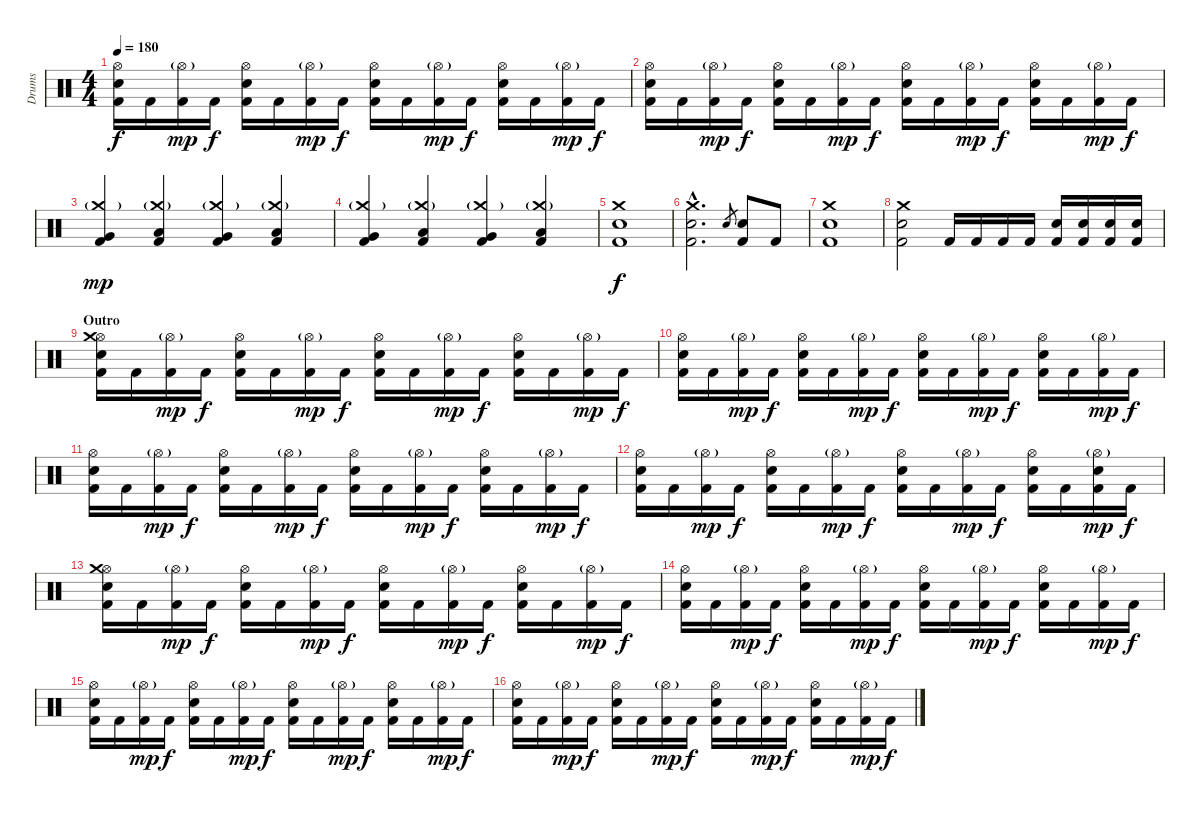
\track ("Drums" "Drums") {instrument percussion}
\staff {score}
\articulation defaults
\ts (4 4)
\tempo 180
\clef neutral
\ks c
("Hi-Hat (open)" "Electric Snare (hit)" "Kick (hit) 2").16{dy f} "Kick (hit) 2".16 ("Hi-Hat (open)"{g} "Kick (hit) 2").16{dy mp} "Kick (hit) 2".16{dy f} ("Hi-Hat (open)" "Electric Snare (hit)" "Kick (hit) 2").16 "Kick (hit) 2".16 ("Hi-Hat (open)"{g} "Kick (hit) 2").16{dy mp} "Kick (hit) 2".16{dy f} ("Hi-Hat (open)" "Electric Snare (hit)" "Kick (hit) 2").16 "Kick (hit) 2".16 ("Hi-Hat (open)"{g} "Kick (hit) 2").16{dy mp} "Kick (hit) 2".16{dy f} ("Hi-Hat (open)" "Electric Snare (hit)" "Kick (hit) 2").16 "Kick (hit) 2".16 ("Hi-Hat (open)"{g} "Kick (hit) 2").16{dy mp} "Kick (hit) 2".16{dy f} |
("Hi-Hat (open)" "Electric Snare (hit)" "Kick (hit) 2").16 "Kick (hit) 2".16 ("Hi-Hat (open)"{g} "Kick (hit) 2").16{dy mp} "Kick (hit) 2".16{dy f} ("Hi-Hat (open)" "Electric Snare (hit)" "Kick (hit) 2").16 "Kick (hit) 2".16 ("Hi-Hat (open)"{g} "Kick (hit) 2").16{dy mp} "Kick (hit) 2".16{dy f} ("Hi-Hat (open)" "Electric Snare (hit)" "Kick (hit) 2").16 "Kick (hit) 2".16 ("Hi-Hat (open)"{g} "Kick (hit) 2").16{dy mp} "Kick (hit) 2".16{dy f} ("Hi-Hat (open)" "Electric Snare (hit)" "Kick (hit) 2").16 "Kick (hit) 2".16 ("Hi-Hat (open)"{g} "Kick (hit) 2").16{dy mp} "Kick (hit) 2".16{dy f} |
("Crash medium (hit)"{g} "Very Low Tom (hit)" "Kick (hit) 2").4{dy mp} ("Crash medium (hit)"{g} "Low Floor Tom (hit)" "Kick (hit) 2").4 ("Crash medium (hit)"{g} "Very Low Tom (hit)" "Kick (hit) 2").4 ("Crash medium (hit)"{g} "Low Floor Tom (hit)" "Kick (hit) 2").4 |
("Crash medium (hit)"{g} "Very Low Tom (hit)" "Kick (hit) 2").4 ("Crash medium (hit)"{g} "Low Floor Tom (hit)" "Kick (hit) 2").4 ("Crash medium (hit)"{g} "Very Low Tom (hit)" "Kick (hit) 2").4 ("Crash medium (hit)"{g} "Low Floor Tom (hit)" "Kick (hit) 2").4 |
("Crash medium (hit)" "Electric Snare (hit)" "Kick (hit) 2").1{dy f} |
("Crash medium (hit)"{hac} "Electric Snare (hit)"{hac} "Kick (hit) 2"{hac}).2{d} "Electric Snare (hit)".8{gr} ("Electric Snare (hit)" "Kick (hit) 2").8 "Kick (hit) 2".8 |
("Crash medium (hit)" "Electric Snare (hit)" "Kick (hit) 2").1 |
("Crash medium (hit)" "Electric Snare (hit)" "Kick (hit) 2").2 "Kick (hit) 2".16 "Kick (hit) 2".16 "Kick (hit) 2".16 "Kick (hit) 2".16 ("Electric Snare (hit)" "Kick (hit) 2").16 ("Electric Snare (hit)" "Kick (hit) 2").16 ("Electric Snare (hit)" "Kick (hit) 2").16 ("Electric Snare (hit)" "Kick (hit) 2").16 |
\section ("" "Outro")
("Hi-Hat (open)" "Crash medium (hit)" "Electric Snare (hit)" "Kick (hit) 2").16 "Kick (hit) 2".16 ("Hi-Hat (open)"{g} "Kick (hit) 2").16{dy mp} "Kick (hit) 2".16{dy f} ("Hi-Hat (open)" "Electric Snare (hit)" "Kick (hit) 2").16 "Kick (hit) 2".16 ("Hi-Hat (open)"{g} "Kick (hit) 2").16{dy mp} "Kick (hit) 2".16{dy f} ("Hi-Hat (open)" "Electric Snare (hit)" "Kick (hit) 2").16 "Kick (hit) 2".16 ("Hi-Hat (open)"{g} "Kick (hit) 2").16{dy mp} "Kick (hit) 2".16{dy f} ("Hi-Hat (open)" "Electric Snare (hit)" "Kick (hit) 2").16 "Kick (hit) 2".16 ("Hi-Hat (open)"{g} "Kick (hit) 2").16{dy mp} "Kick (hit) 2".16{dy f} |
("Hi-Hat (open)" "Electric Snare (hit)" "Kick (hit) 2").16 "Kick (hit) 2".16 ("Hi-Hat (open)"{g} "Kick (hit) 2").16{dy mp} "Kick (hit) 2".16{dy f} ("Hi-Hat (open)" "Electric Snare (hit)" "Kick (hit) 2").16 "Kick (hit) 2".16 ("Hi-Hat (open)"{g} "Kick (hit) 2").16{dy mp} "Kick (hit) 2".16{dy f} ("Hi-Hat (open)" "Electric Snare (hit)" "Kick (hit) 2").16 "Kick (hit) 2".16 ("Hi-Hat (open)"{g} "Kick (hit) 2").16{dy mp} "Kick (hit) 2".16{dy f} ("Hi-Hat (open)" "Electric Snare (hit)" "Kick (hit) 2").16 "Kick (hit) 2".16 ("Hi-Hat (open)"{g} "Kick (hit) 2").16{dy mp} "Kick (hit) 2".16{dy f} |
("Hi-Hat (open)" "Electric Snare (hit)" "Kick (hit) 2").16 "Kick (hit) 2".16 ("Hi-Hat (open)"{g} "Kick (hit) 2").16{dy mp} "Kick (hit) 2".16{dy f} ("Hi-Hat (open)" "Electric Snare (hit)" "Kick (hit) 2").16 "Kick (hit) 2".16 ("Hi-Hat (open)"{g} "Kick (hit) 2").16{dy mp} "Kick (hit) 2".16{dy f} ("Hi-Hat (open)" "Electric Snare (hit)" "Kick (hit) 2").16 "Kick (hit) 2".16 ("Hi-Hat (open)"{g} "Kick (hit) 2").16{dy mp} "Kick (hit) 2".16{dy f} ("Hi-Hat (open)" "Electric Snare (hit)" "Kick (hit) 2").16 "Kick (hit) 2".16 ("Hi-Hat (open)"{g} "Kick (hit) 2").16{dy mp} "Kick (hit) 2".16{dy f} |
("Hi-Hat (open)" "Electric Snare (hit)" "Kick (hit) 2").16 "Kick (hit) 2".16 ("Hi-Hat (open)"{g} "Kick (hit) 2").16{dy mp} "Kick (hit) 2".16{dy f} ("Hi-Hat (open)" "Electric Snare (hit)" "Kick (hit) 2").16 "Kick (hit) 2".16 ("Hi-Hat (open)"{g} "Kick (hit) 2").16{dy mp} "Kick (hit) 2".16{dy f} ("Hi-Hat (open)" "Electric Snare (hit)" "Kick (hit) 2").16 "Kick (hit) 2".16 ("Hi-Hat (open)"{g} "Kick (hit) 2").16{dy mp} "Kick (hit) 2".16{dy f} ("Hi-Hat (open)" "Electric Snare (hit)" "Kick (hit) 2").16 "Kick (hit) 2".16 ("Hi-Hat (open)"{g} "Electric Snare (hit)" "Kick (hit) 2").16{dy mp} "Kick (hit) 2".16{dy f} |
("Hi-Hat (open)" "Crash medium (hit)" "Electric Snare (hit)" "Kick (hit) 2").16 "Kick (hit) 2".16 ("Hi-Hat (open)"{g} "Kick (hit) 2").16{dy mp} "Kick (hit) 2".16{dy f} ("Hi-Hat (open)" "Electric Snare (hit)" "Kick (hit) 2").16 "Kick (hit) 2".16 ("Hi-Hat (open)"{g} "Kick (hit) 2").16{dy mp} "Kick (hit) 2".16{dy f} ("Hi-Hat (open)" "Electric Snare (hit)" "Kick (hit) 2").16 "Kick (hit) 2".16 ("Hi-Hat (open)"{g} "Kick (hit) 2").16{dy mp} "Kick (hit) 2".16{dy f} ("Hi-Hat (open)" "Electric Snare (hit)" "Kick (hit) 2").16 "Kick (hit) 2".16 ("Hi-Hat (open)"{g} "Kick (hit) 2").16{dy mp} "Kick (hit) 2".16{dy f} |
("Hi-Hat (open)" "Electric Snare (hit)" "Kick (hit) 2").16 "Kick (hit) 2".16 ("Hi-Hat (open)"{g} "Kick (hit) 2").16{dy mp} "Kick (hit) 2".16{dy f} ("Hi-Hat (open)" "Electric Snare (hit)" "Kick (hit) 2").16 "Kick (hit) 2".16 ("Hi-Hat (open)"{g} "Kick (hit) 2").16{dy mp} "Kick (hit) 2".16{dy f} ("Hi-Hat (open)" "Electric Snare (hit)" "Kick (hit) 2").16 "Kick (hit) 2".16 ("Hi-Hat (open)"{g} "Kick (hit) 2").16{dy mp} "Kick (hit) 2".16{dy f} ("Hi-Hat (open)" "Electric Snare (hit)" "Kick (hit) 2").16 "Kick (hit) 2".16 ("Hi-Hat (open)"{g} "Kick (hit) 2").16{dy mp} "Kick (hit) 2".16{dy f} |
("Hi-Hat (open)" "Electric Snare (hit)" "Kick (hit) 2").16 "Kick (hit) 2".16 ("Hi-Hat (open)"{g} "Kick (hit) 2").16{dy mp} "Kick (hit) 2".16{dy f} ("Hi-Hat (open)" "Electric Snare (hit)" "Kick (hit) 2").16 "Kick (hit) 2".16 ("Hi-Hat (open)"{g} "Kick (hit) 2").16{dy mp} "Kick (hit) 2".16{dy f} ("Hi-Hat (open)" "Electric Snare (hit)" "Kick (hit) 2").16 "Kick (hit) 2".16 ("Hi-Hat (open)"{g} "Kick (hit) 2").16{dy mp} "Kick (hit) 2".16{dy f} ("Hi-Hat (open)" "Electric Snare (hit)" "Kick (hit) 2").16 "Kick (hit) 2".16 ("Hi-Hat (open)"{g} "Kick (hit) 2").16{dy mp} "Kick (hit) 2".16{dy f} |
("Hi-Hat (open)" "Electric Snare (hit)" "Kick (hit) 2").16 "Kick (hit) 2".16 ("Hi-Hat (open)"{g} "Kick (hit) 2").16{dy mp} "Kick (hit) 2".16{dy f} ("Hi-Hat (open)" "Electric Snare (hit)" "Kick (hit) 2").16 "Kick (hit) 2".16 ("Hi-Hat (open)"{g} "Kick (hit) 2").16{dy mp} "Kick (hit) 2".16{dy f} ("Hi-Hat (open)" "Electric Snare (hit)" "Kick (hit) 2").16 "Kick (hit) 2".16 ("Hi-Hat (open)"{g} "Kick (hit) 2").16{dy mp} "Kick (hit) 2".16{dy f} ("Hi-Hat (open)" "Electric Snare (hit)" "Kick (hit) 2").16 "Kick (hit) 2".16 ("Hi-Hat (open)"{g} "Kick (hit) 2").16{dy mp} "Kick (hit) 2".16{dy f}
